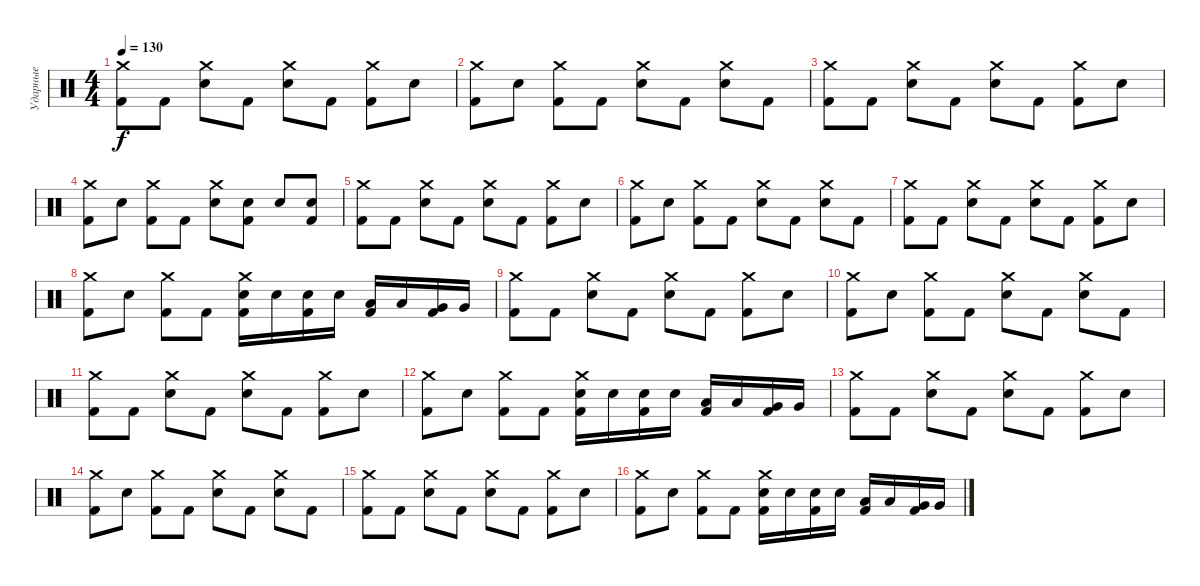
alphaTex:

\track ("Ударные" "Ударные") {instrument percussion}
\staff {score}
\articulation defaults
\ts (4 4)
\tempo 130
\clef neutral
\ks c
("Crash medium (hit)" "Kick (hit) 2").8{dy f} "Kick (hit) 2".8 ("Crash medium (hit)" "Electric Snare (hit)").8 "Kick (hit) 2".8 ("Crash medium (hit)" "Electric Snare (hit)").8 "Kick (hit) 2".8 ("Crash medium (hit)" "Kick (hit) 2").8 "Electric Snare (hit)".8 |
("Crash medium (hit)" "Kick (hit) 2").8 "Electric Snare (hit)".8 ("Crash medium (hit)" "Kick (hit) 2").8 "Kick (hit) 2".8 ("Crash medium (hit)" "Electric Snare (hit)").8 "Kick (hit) 2".8 ("Crash medium (hit)" "Electric Snare (hit)").8 "Kick (hit) 2".8 |
("Crash medium (hit)" "Kick (hit) 2").8 "Kick (hit) 2".8 ("Crash medium (hit)" "Electric Snare (hit)").8 "Kick (hit) 2".8 ("Crash medium (hit)" "Electric Snare (hit)").8 "Kick (hit) 2".8 ("Crash medium (hit)" "Kick (hit) 2").8 "Electric Snare (hit)".8 |
("Crash medium (hit)" "Kick (hit) 2").8 "Electric Snare (hit)".8 ("Crash medium (hit)" "Kick (hit) 2").8 "Kick (hit) 2".8 ("Crash medium (hit)" "Electric Snare (hit)").8 ("Electric Snare (hit)" "Kick (hit) 2").8 "Electric Snare (hit)".8 ("Electric Snare (hit)" "Kick (hit) 2").8 |
("Crash medium (hit)" "Kick (hit) 2").8 "Kick (hit) 2".8 ("Crash medium (hit)" "Electric Snare (hit)").8 "Kick (hit) 2".8 ("Crash medium (hit)" "Electric Snare (hit)").8 "Kick (hit) 2".8 ("Crash medium (hit)" "Kick (hit) 2").8 "Electric Snare (hit)".8 |
("Crash medium (hit)" "Kick (hit) 2").8 "Electric Snare (hit)".8 ("Crash medium (hit)" "Kick (hit) 2").8 "Kick (hit) 2".8 ("Crash medium (hit)" "Electric Snare (hit)").8 "Kick (hit) 2".8 ("Crash medium (hit)" "Electric Snare (hit)").8 "Kick (hit) 2".8 |
("Crash medium (hit)" "Kick (hit) 2").8 "Kick (hit) 2".8 ("Crash medium (hit)" "Electric Snare (hit)").8 "Kick (hit) 2".8 ("Crash medium (hit)" "Electric Snare (hit)").8 "Kick (hit) 2".8 ("Crash medium (hit)" "Kick (hit) 2").8 "Electric Snare (hit)".8 |
("Crash medium (hit)" "Kick (hit) 2").8 "Electric Snare (hit)".8 ("Crash medium (hit)" "Kick (hit) 2").8 "Kick (hit) 2".8 ("Crash medium (hit)" "Electric Snare (hit)" "Kick (hit) 2").16 "Electric Snare (hit)".16 ("Electric Snare (hit)" "Kick (hit) 2").16 "Electric Snare (hit)".16 ("Low Tom (hit)" "Kick (hit) 2").16 "Low Tom (hit)".16 ("Very Low Tom (hit)" "Kick (hit) 2").16 "Very Low Tom (hit)".16 |
("Crash medium (hit)" "Kick (hit) 2").8 "Kick (hit) 2".8 ("Crash medium (hit)" "Electric Snare (hit)").8 "Kick (hit) 2".8 ("Crash medium (hit)" "Electric Snare (hit)").8 "Kick (hit) 2".8 ("Crash medium (hit)" "Kick (hit) 2").8 "Electric Snare (hit)".8 |
("Crash medium (hit)" "Kick (hit) 2").8 "Electric Snare (hit)".8 ("Crash medium (hit)" "Kick (hit) 2").8 "Kick (hit) 2".8 ("Crash medium (hit)" "Electric Snare (hit)").8 "Kick (hit) 2".8 ("Crash medium (hit)" "Electric Snare (hit)").8 "Kick (hit) 2".8 |
("Crash medium (hit)" "Kick (hit) 2").8 "Kick (hit) 2".8 ("Crash medium (hit)" "Electric Snare (hit)").8 "Kick (hit) 2".8 ("Crash medium (hit)" "Electric Snare (hit)").8 "Kick (hit) 2".8 ("Crash medium (hit)" "Kick (hit) 2").8 "Electric Snare (hit)".8 |
("Crash medium (hit)" "Kick (hit) 2").8 "Electric Snare (hit)".8 ("Crash medium (hit)" "Kick (hit) 2").8 "Kick (hit) 2".8 ("Crash medium (hit)" "Electric Snare (hit)" "Kick (hit) 2").16 "Electric Snare (hit)".16 ("Electric Snare (hit)" "Kick (hit) 2").16 "Electric Snare (hit)".16 ("Low Tom (hit)" "Kick (hit) 2").16 "Low Tom (hit)".16 ("Very Low Tom (hit)" "Kick (hit) 2").16 "Very Low Tom (hit)".16 |
("Crash medium (hit)" "Kick (hit) 2").8 "Kick (hit) 2".8 ("Crash medium (hit)" "Electric Snare (hit)").8 "Kick (hit) 2".8 ("Crash medium (hit)" "Electric Snare (hit)").8 "Kick (hit) 2".8 ("Crash medium (hit)" "Kick (hit) 2").8 "Electric Snare (hit)".8 |
("Crash medium (hit)" "Kick (hit) 2").8 "Electric Snare (hit)".8 ("Crash medium (hit)" "Kick (hit) 2").8 "Kick (hit) 2".8 ("Crash medium (hit)" "Electric Snare (hit)").8 "Kick (hit) 2".8 ("Crash medium (hit)" "Electric Snare (hit)").8 "Kick (hit) 2".8 |
("Crash medium (hit)" "Kick (hit) 2").8 "Kick (hit) 2".8 ("Crash medium (hit)" "Electric Snare (hit)").8 "Kick (hit) 2".8 ("Crash medium (hit)" "Electric Snare (hit)").8 "Kick (hit) 2".8 ("Crash medium (hit)" "Kick (hit) 2").8 "Electric Snare (hit)".8 |
("Crash medium (hit)" "Kick (hit) 2").8 "Electric Snare (hit)".8 ("Crash medium (hit)" "Kick (hit) 2").8 "Kick (hit) 2".8 ("Crash medium (hit)" "Electric Snare (hit)" "Kick (hit) 2").16 "Electric Snare (hit)".16 ("Electric Snare (hit)" "Kick (hit) 2").16 "Electric Snare (hit)".16 ("Low Tom (hit)" "Kick (hit) 2").16 "Low Tom (hit)".16 ("Very Low Tom (hit)" "Kick (hit) 2").16 "Very Low Tom (hit)".16
